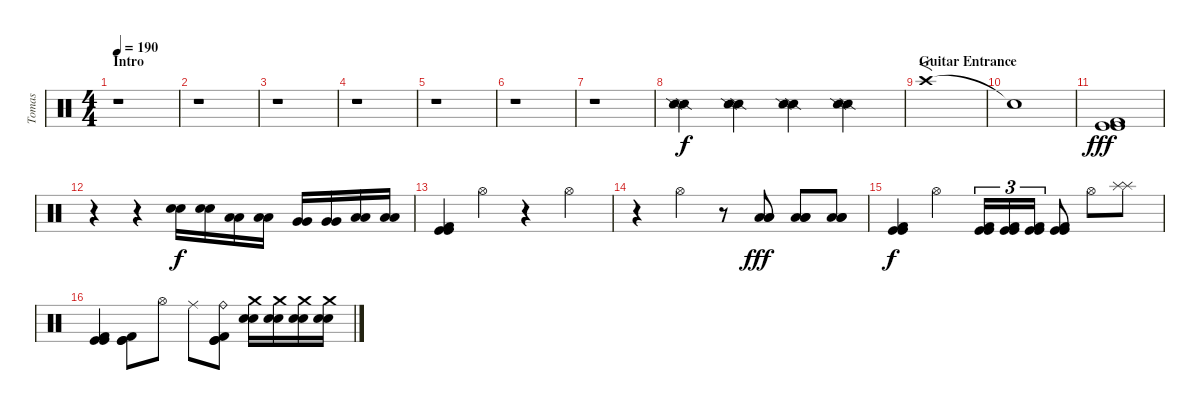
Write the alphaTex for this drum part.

\track ("Tomas" "Tomas") {instrument percussion}
\staff {score}
\articulation defaults
\ts (4 4)
\section ("" "Intro")
\tempo 190
\clef neutral
\ks c
r.1{dy f} |
r.1 |
r.1 |
r.1 |
r.1 |
r.1 |
r.1 |
("Snare (side stick) 2" "Snare (side stick) 2").4 ("Snare (side stick) 2" "Snare (side stick) 2").4 ("Snare (side stick) 2" "Snare (side stick) 2").4 ("Snare (side stick) 2" "Snare (side stick) 2").4 |
\section ("" "Guitar Entrance")
"Crash high (hit)".1{f} |
"Snare (hit)"{t}.1 |
("Kick (hit)" "Kick (hit)" "Kick (hit) 2").1{dy fff} |
r.4 r.4 ("Electric Snare (hit)" "Electric Snare (hit)").16{dy f} ("Electric Snare (hit)" "Electric Snare (hit)").16 ("Low Tom (hit)" "Low Tom (hit)").16 ("Low Tom (hit)" "Low Tom (hit)").16 ("Very Low Tom (hit)" "Very Low Tom (hit)").16 ("Very Low Tom (hit)" "Very Low Tom (hit)").16 ("Low Floor Tom (hit)" "Low Floor Tom (hit)").16 ("Low Floor Tom (hit)" "Low Floor Tom (hit)").16 |
("Kick (hit)" "Kick (hit)" "Kick (hit) 2").4 "Hi-Hat (open)".4 r.4 "Hi-Hat (open)".4 |
r.4 "Hi-Hat (open)".4 r.8 ("Low Floor Tom (hit)" "Low Floor Tom (hit)" "Low Floor Tom (hit)").8{dy fff} ("Low Tom (hit)" "Low Tom (hit)" "Low Tom (hit)").8 ("Low Tom (hit)" "Low Tom (hit)" "Low Tom (hit)").8 |
("Kick (hit)" "Kick (hit)" "Kick (hit) 2").4{dy f} "Hi-Hat (open)".4 ("Kick (hit)" "Kick (hit)" "Kick (hit) 2").16{tu (3 2)} ("Kick (hit)" "Kick (hit)" "Kick (hit) 2").16{tu (3 2)} ("Kick (hit)" "Kick (hit)" "Kick (hit) 2").16{tu (3 2)} ("Kick (hit)" "Kick (hit)" "Kick (hit) 2").8 "Hi-Hat (open)".8 ("Splash (hit)" "Splash (hit)").8 |
("Kick (hit)" "Kick (hit)" "Kick (hit) 2").4 ("Kick (hit)" "Kick (hit)" "Kick (hit) 2").8 "Hi-Hat (open)".8 "Ride (middle)".8 ("Ride (bell)" "Kick (hit)" "Kick (hit) 2" "Kick (hit)").8 ("Crash medium (hit)" "Electric Snare (hit)" "Electric Snare (hit)").16 ("Crash medium (hit)" "Electric Snare (hit)" "Electric Snare (hit)").16 ("Crash medium (hit)" "Electric Snare (hit)" "Electric Snare (hit)").16 ("Crash medium (hit)" "Electric Snare (hit)" "Electric Snare (hit)").16
